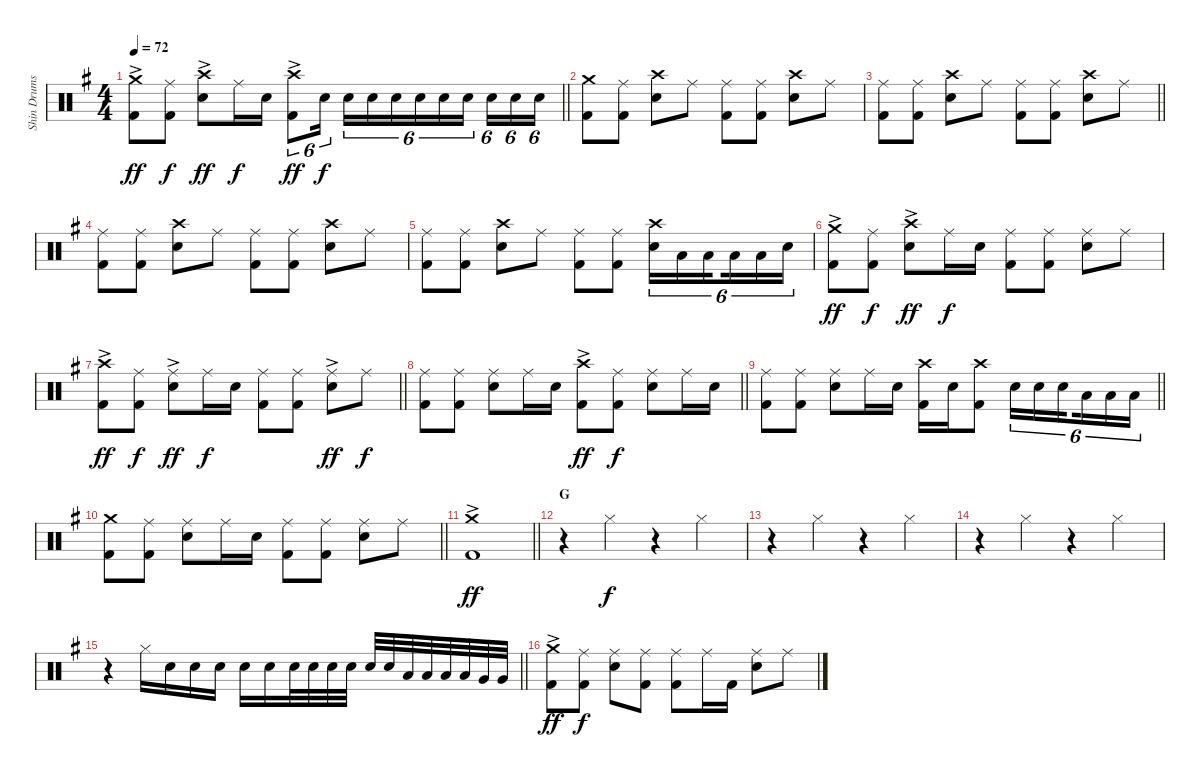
\track ("Shin Drums" "Shin Drums") {instrument percussion}
\staff {score}
\articulation defaults
\ts (4 4)
\tempo 72
\clef neutral
\barLineRight lightlight
\ks g
("Crash medium (hit)"{ac} "Kick (hit) 2").8{dy ff} ("Ride (middle)" "Kick (hit) 2").8{dy f} ("Crash high (hit)"{ac} "Snare (hit) 2").8{dy ff} "Ride (middle)".16{dy f} "Snare (hit) 2".16 ("Crash high (hit)"{ac} "Kick (hit) 2").8{tu (6 4) dy ff} "Snare (hit) 2".16{tu (6 4) dy f beam splitsecondary} "Snare (hit) 2".16{tu (6 4)} "Snare (hit) 2".16{tu (6 4)} "Snare (hit) 2".16{tu (6 4)} "Snare (hit) 2".16{tu (6 4)} "Snare (hit) 2".16{tu (6 4)} "Snare (hit) 2".16{tu (6 4) beam splitsecondary} "Snare (hit) 2".16{tu (6 4)} "Snare (hit) 2".16{tu (6 4)} "Snare (hit) 2".16{tu (6 4)} |
\section ("" "")
("Crash medium (hit)" "Kick (hit) 2").8 ("Ride (middle)" "Kick (hit) 2").8 ("Crash high (hit)" "Snare (hit) 2").8 "Ride (middle)".8 ("Ride (middle)" "Kick (hit) 2").8 ("Ride (middle)" "Kick (hit) 2").8 ("Crash high (hit)" "Snare (hit) 2").8 "Ride (middle)".8 |
\barLineRight lightlight
("Ride (middle)" "Kick (hit) 2").8 ("Ride (middle)" "Kick (hit) 2").8 ("Crash high (hit)" "Snare (hit) 2").8 "Ride (middle)".8 ("Ride (middle)" "Kick (hit) 2").8 ("Ride (middle)" "Kick (hit) 2").8 ("Crash high (hit)" "Snare (hit) 2").8 "Ride (middle)".8 |
\section ("" "")
("Ride (middle)" "Kick (hit) 2").8 ("Ride (middle)" "Kick (hit) 2").8 ("Crash high (hit)" "Snare (hit) 2").8 "Ride (middle)".8 ("Ride (middle)" "Kick (hit) 2").8 ("Ride (middle)" "Kick (hit) 2").8 ("Crash high (hit)" "Snare (hit) 2").8 "Ride (middle)".8 |
("Ride (middle)" "Kick (hit) 2").8 ("Ride (middle)" "Kick (hit) 2").8 ("Crash high (hit)" "Snare (hit) 2").8 "Ride (middle)".8 ("Ride (middle)" "Kick (hit) 2").8 ("Ride (middle)" "Kick (hit) 2").8 ("Crash high (hit)" "Snare (hit) 2").16{tu (6 4)} "Low Tom (hit)".16{tu (6 4)} "Low Tom (hit)".16{tu (6 4) beam splitsecondary} "Low Tom (hit)".16{tu (6 4)} "Low Tom (hit)".16{tu (6 4)} "Snare (hit)".16{tu (6 4)} |
("Crash medium (hit)"{ac} "Kick (hit) 2").8{dy ff} ("Ride (middle)" "Kick (hit) 2").8{dy f} ("Crash high (hit)"{ac} "Snare (hit) 2").8{dy ff} "Ride (middle)".16{dy f} "Snare (hit) 2".16 ("Ride (middle)" "Kick (hit) 2").8 ("Ride (middle)" "Kick (hit) 2").8 ("Ride (middle)" "Snare (hit) 2").8 "Ride (middle)".8 |
\barLineRight lightlight
("Crash high (hit)"{ac} "Kick (hit) 2").8{dy ff} ("Ride (middle)" "Kick (hit) 2").8{dy f} ("Ride (middle)"{ac} "Snare (hit) 2").8{dy ff} "Ride (middle)".16{dy f} "Snare (hit) 2".16 ("Ride (middle)" "Kick (hit) 2").8 ("Ride (middle)" "Kick (hit) 2").8 ("Ride (middle)"{ac} "Snare (hit) 2").8{dy ff} "Ride (middle)".8{dy f} |
\section ("" "")
\barLineRight lightlight
("Ride (middle)" "Kick (hit) 2").8 ("Ride (middle)" "Kick (hit) 2").8 ("Ride (middle)" "Snare (hit) 2").8 "Ride (middle)".16 "Snare (hit) 2".16 ("Crash high (hit)"{ac} "Kick (hit) 2").8{dy ff} ("Ride (middle)" "Kick (hit) 2").8{dy f} ("Ride (middle)" "Snare (hit) 2").8 "Ride (middle)".16 "Snare (hit) 2".16 |
\section ("" "")
\barLineRight lightlight
("Ride (middle)" "Kick (hit) 2").8 ("Ride (middle)" "Kick (hit) 2").8 ("Ride (middle)" "Snare (hit) 2").8 "Ride (middle)".16 "Snare (hit) 2".16 ("Crash high (hit)" "Kick (hit) 2").16 "Snare (hit) 2".16 ("Crash high (hit)" "Kick (hit) 2").8 "Snare (hit) 2".16{tu (6 4)} "Snare (hit) 2".16{tu (6 4)} "Snare (hit) 2".16{tu (6 4) beam splitsecondary} "Low Tom (hit)".16{tu (6 4)} "Low Tom (hit)".16{tu (6 4)} "Low Tom (hit)".16{tu (6 4)} |
\barLineRight lightlight
("Crash medium (hit)" "Kick (hit) 2").8 ("Ride (middle)" "Kick (hit) 2").8 ("Ride (middle)" "Snare (hit) 2").8 "Ride (middle)".16 "Snare (hit) 2".16 ("Ride (middle)" "Kick (hit) 2").8 ("Ride (middle)" "Kick (hit) 2").8 ("Ride (middle)" "Snare (hit) 2").8 "Ride (middle)".8 |
\section ("" "")
\barLineRight lightlight
("Crash medium (hit)"{ac} "Kick (hit) 2"{ac}).1{dy ff} |
\section ("" "G")
r.4 "Hi-Hat (closed)".4{dy f} r.4 "Hi-Hat (closed)".4 |
r.4 "Hi-Hat (closed)".4 r.4 "Hi-Hat (closed)".4 |
r.4 "Hi-Hat (closed)".4 r.4 "Hi-Hat (closed)".4 |
\barLineRight lightlight
r.4 "Hi-Hat (closed)".16 "Snare (hit) 2".16 "Snare (hit) 2".16 "Snare (hit) 2".16 "Snare (hit) 2".16 "Snare (hit) 2".16 "Snare (hit) 2".32 "Snare (hit) 2".32 "Snare (hit) 2".32 "Snare (hit) 2".32 "Snare (hit) 2".32 "Snare (hit) 2".32 "Low Tom (hit)".32 "Low Tom (hit)".32 "Low Tom (hit)".32 "Low Tom (hit)".32 "Very Low Tom (hit)".32 "Very Low Tom (hit)".32 |
\section ("" "")
("Crash medium (hit)"{ac} "Kick (hit) 2").8{dy ff} ("Ride (middle)" "Kick (hit) 2").8{dy f} ("Ride (middle)" "Snare (hit) 2").8 ("Ride (middle)" "Kick (hit) 2").8 ("Ride (middle)" "Kick (hit) 2").8 "Ride (middle)".16 "Kick (hit) 2".16 ("Ride (middle)" "Snare (hit) 2").8 "Ride (middle)".8
